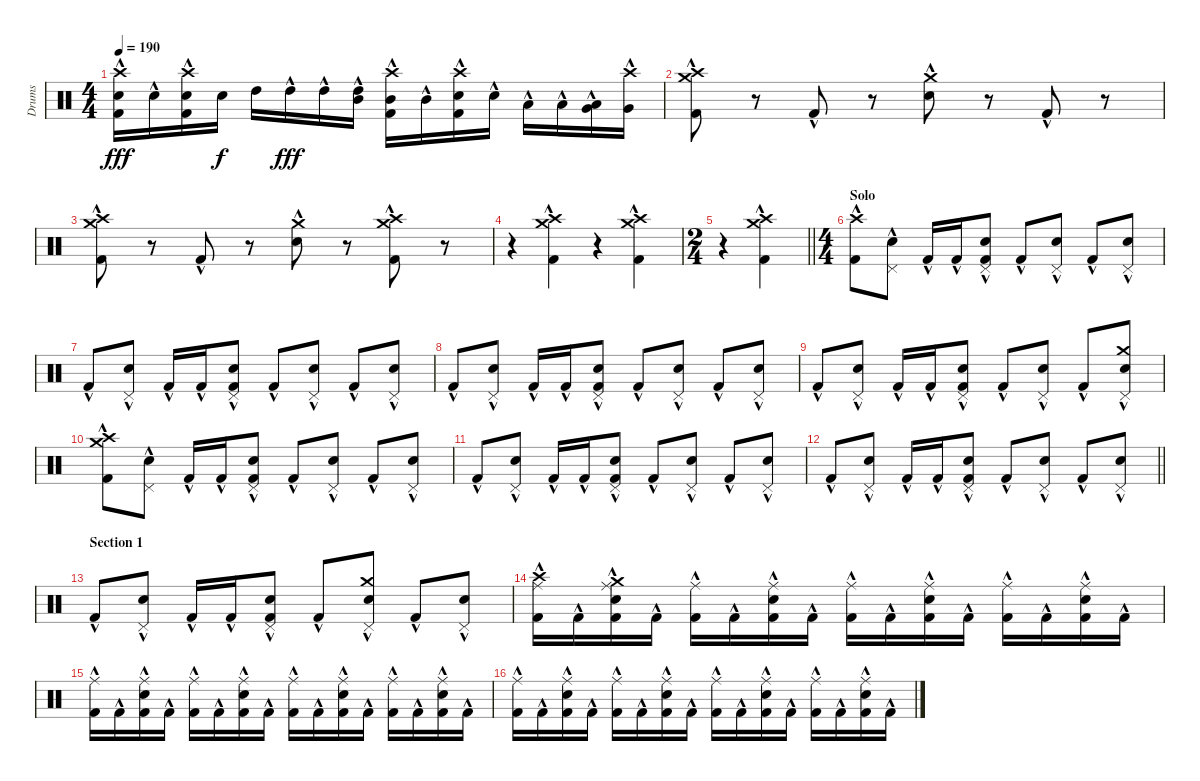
\track ("Drums" "Drums") {instrument percussion}
\staff {score}
\articulation defaults
\ts (4 4)
\tempo 190
\clef neutral
\ks c
("Crash high (hit)" "Snare (hit) 2"{hac} "Kick (hit) 2"{hac}).16{dy fff} "Snare (hit) 2"{hac}.16 ("Crash high (hit)" "Snare (hit) 2" "Kick (hit) 2"{hac}).16 "Snare (hit) 2".16{dy f} "High Tom (hit)".16 "High Tom (hit)"{hac}.16{dy fff} "High Tom (hit)"{hac}.16 ("High Tom (hit)" "Mid Tom (hit)"{hac}).16 ("Crash high (hit)" "Mid Tom (hit)"{hac} "Kick (hit) 2"{hac}).16 "Mid Tom (hit)"{hac}.16 ("Crash high (hit)" "Snare (hit) 2"{hac} "Kick (hit) 2").16 "Snare (hit) 2"{hac}.16 "Low Tom (hit)"{hac}.16 "Low Tom (hit)"{hac}.16 ("Low Tom (hit)" "Very Low Tom (hit)"{hac}).16 ("Crash high (hit)" "Very Low Tom (hit)"{hac}).16 |
("Crash high (hit)" "Crash medium (hit)" "Kick (hit) 2"{hac}).8 r.8 "Kick (hit) 2"{hac}.8 r.8 ("Crash medium (hit)" "Snare (hit) 2"{hac}).8 r.8 "Kick (hit) 2"{hac}.8 r.8 |
("Crash high (hit)" "Crash medium (hit)" "Kick (hit) 2"{hac}).8 r.8 "Kick (hit) 2"{hac}.8 r.8 ("Crash medium (hit)" "Snare (hit) 2"{hac}).8 r.8 ("Crash high (hit)" "Crash medium (hit)" "Kick (hit) 2"{hac}).8 r.8 |
r.4 ("Crash high (hit)" "Crash medium (hit)" "Kick (hit) 2"{hac}).4 r.4 ("Crash high (hit)" "Crash medium (hit)" "Kick (hit) 2"{hac}).4 |
\ts (2 4)
\barLineRight lightlight
r.4 ("Crash high (hit)" "Crash medium (hit)" "Kick (hit) 2"{hac}).4 |
\ts (4 4)
\section ("" "Solo")
("Crash high (hit)" "Kick (hit) 2"{hac}).8 ("Pedal Hi-Hat (hit)" "Snare (hit) 2"{hac}).8 "Kick (hit) 2"{hac}.16 "Kick (hit) 2"{hac}.16 ("Pedal Hi-Hat (hit)" "Snare (hit) 2"{hac} "Kick (hit) 2"{hac}).8 "Kick (hit) 2"{hac}.8 ("Pedal Hi-Hat (hit)" "Snare (hit) 2"{hac}).8 "Kick (hit) 2"{hac}.8 ("Pedal Hi-Hat (hit)" "Snare (hit) 2"{hac}).8 |
"Kick (hit) 2"{hac}.8 ("Pedal Hi-Hat (hit)" "Snare (hit) 2"{hac}).8 "Kick (hit) 2"{hac}.16 "Kick (hit) 2"{hac}.16 ("Pedal Hi-Hat (hit)" "Snare (hit) 2"{hac} "Kick (hit) 2"{hac}).8 "Kick (hit) 2"{hac}.8 ("Pedal Hi-Hat (hit)" "Snare (hit) 2"{hac}).8 "Kick (hit) 2"{hac}.8 ("Pedal Hi-Hat (hit)" "Snare (hit) 2"{hac}).8 |
"Kick (hit) 2"{hac}.8 ("Pedal Hi-Hat (hit)" "Snare (hit) 2"{hac}).8 "Kick (hit) 2"{hac}.16 "Kick (hit) 2"{hac}.16 ("Pedal Hi-Hat (hit)" "Snare (hit) 2" "Kick (hit) 2"{hac}).8 "Kick (hit) 2"{hac}.8 ("Pedal Hi-Hat (hit)" "Snare (hit) 2"{hac}).8 "Kick (hit) 2"{hac}.8 ("Pedal Hi-Hat (hit)" "Snare (hit) 2"{hac}).8 |
"Kick (hit) 2"{hac}.8 ("Pedal Hi-Hat (hit)" "Snare (hit) 2"{hac}).8 "Kick (hit) 2"{hac}.16 "Kick (hit) 2"{hac}.16 ("Pedal Hi-Hat (hit)" "Snare (hit) 2" "Kick (hit) 2"{hac}).8 "Kick (hit) 2"{hac}.8 ("Pedal Hi-Hat (hit)" "Snare (hit) 2"{hac}).8 "Kick (hit) 2"{hac}.8 ("Crash medium (hit)" "Pedal Hi-Hat (hit)" "Snare (hit) 2"{hac}).8 |
("Crash high (hit)" "Crash medium (hit)" "Kick (hit) 2"{hac}).8 ("Pedal Hi-Hat (hit)" "Snare (hit) 2"{hac}).8 "Kick (hit) 2"{hac}.16 "Kick (hit) 2"{hac}.16 ("Pedal Hi-Hat (hit)" "Snare (hit) 2"{hac} "Kick (hit) 2"{hac}).8 "Kick (hit) 2"{hac}.8 ("Pedal Hi-Hat (hit)" "Snare (hit) 2"{hac}).8 "Kick (hit) 2"{hac}.8 ("Pedal Hi-Hat (hit)" "Snare (hit) 2"{hac}).8 |
"Kick (hit) 2"{hac}.8 ("Pedal Hi-Hat (hit)" "Snare (hit) 2"{hac}).8 "Kick (hit) 2"{hac}.16 "Kick (hit) 2"{hac}.16 ("Pedal Hi-Hat (hit)" "Snare (hit) 2"{hac} "Kick (hit) 2"{hac}).8 "Kick (hit) 2"{hac}.8 ("Pedal Hi-Hat (hit)" "Snare (hit) 2"{hac}).8 "Kick (hit) 2"{hac}.8 ("Pedal Hi-Hat (hit)" "Snare (hit) 2"{hac}).8 |
\barLineRight lightlight "Kick (hit) 2"{hac}.8
("Pedal Hi-Hat (hit)" "Snare (hit) 2"{hac}).8 "Kick (hit) 2"{hac}.16 "Kick (hit) 2"{hac}.16 ("Pedal Hi-Hat (hit)" "Snare (hit) 2" "Kick (hit) 2"{hac}).8 "Kick (hit) 2"{hac}.8 ("Pedal Hi-Hat (hit)" "Snare (hit) 2"{hac}).8 "Kick (hit) 2"{hac}.8 ("Pedal Hi-Hat (hit)" "Snare (hit) 2"{hac}).8 |
\section ("" "Section 1")
"Kick (hit) 2"{hac}.8 ("Pedal Hi-Hat (hit)" "Snare (hit) 2"{hac}).8 "Kick (hit) 2"{hac}.16 "Kick (hit) 2"{hac}.16 ("Pedal Hi-Hat (hit)" "Snare (hit) 2" "Kick (hit) 2"{hac}).8 "Kick (hit) 2"{hac}.8 ("Crash medium (hit)" "Pedal Hi-Hat (hit)" "Snare (hit) 2"{hac}).8 "Kick (hit) 2"{hac}.8 ("Pedal Hi-Hat (hit)" "Snare (hit) 2"{hac}).8 |
("Crash high (hit)" "Ride (middle)" "Kick (hit) 2"{hac}).16 "Kick (hit) 2"{hac}.16 ("Crash medium (hit)" "Ride (middle)" "Snare (hit) 2"{hac} "Kick (hit) 2"{hac}).16 "Kick (hit) 2"{hac}.16 ("Ride (middle)" "Kick (hit) 2"{hac}).16 "Kick (hit) 2"{hac}.16 ("Ride (middle)" "Snare (hit) 2"{hac} "Kick (hit) 2").16 "Kick (hit) 2"{hac}.16 ("Ride (middle)" "Kick (hit) 2"{hac}).16 "Kick (hit) 2"{hac}.16 ("Ride (middle)" "Snare (hit) 2"{hac} "Kick (hit) 2"{hac}).16 "Kick (hit) 2"{hac}.16 ("Ride (middle)" "Kick (hit) 2"{hac}).16 "Kick (hit) 2"{hac}.16 ("Ride (middle)" "Snare (hit) 2"{hac} "Kick (hit) 2"{hac}).16 "Kick (hit) 2"{hac}.16 |
("Ride (middle)" "Kick (hit) 2"{hac}).16 "Kick (hit) 2"{hac}.16 ("Ride (middle)" "Snare (hit) 2"{hac} "Kick (hit) 2"{hac}).16 "Kick (hit) 2"{hac}.16 ("Ride (middle)" "Kick (hit) 2"{hac}).16 "Kick (hit) 2"{hac}.16 ("Ride (middle)" "Snare (hit) 2"{hac} "Kick (hit) 2").16 "Kick (hit) 2"{hac}.16 ("Ride (middle)" "Kick (hit) 2"{hac}).16 "Kick (hit) 2"{hac}.16 ("Ride (middle)" "Snare (hit) 2"{hac} "Kick (hit) 2"{hac}).16 "Kick (hit) 2"{hac}.16 ("Ride (middle)" "Kick (hit) 2"{hac}).16 "Kick (hit) 2"{hac}.16 ("Ride (middle)" "Snare (hit) 2"{hac} "Kick (hit) 2"{hac}).16 "Kick (hit) 2"{hac}.16 |
("Ride (middle)" "Kick (hit) 2"{hac}).16 "Kick (hit) 2"{hac}.16 ("Ride (middle)" "Snare (hit) 2"{hac} "Kick (hit) 2"{hac}).16 "Kick (hit) 2"{hac}.16 ("Ride (middle)" "Kick (hit) 2"{hac}).16 "Kick (hit) 2"{hac}.16 ("Ride (middle)" "Snare (hit) 2"{hac} "Kick (hit) 2"{hac}).16 "Kick (hit) 2"{hac}.16 ("Ride (middle)" "Kick (hit) 2"{hac}).16 "Kick (hit) 2"{hac}.16 ("Ride (middle)" "Snare (hit) 2"{hac} "Kick (hit) 2"{hac}).16 "Kick (hit) 2"{hac}.16 ("Ride (middle)" "Kick (hit) 2"{hac}).16 "Kick (hit) 2"{hac}.16 ("Ride (middle)" "Snare (hit) 2"{hac} "Kick (hit) 2"{hac}).16 "Kick (hit) 2"{hac}.16
